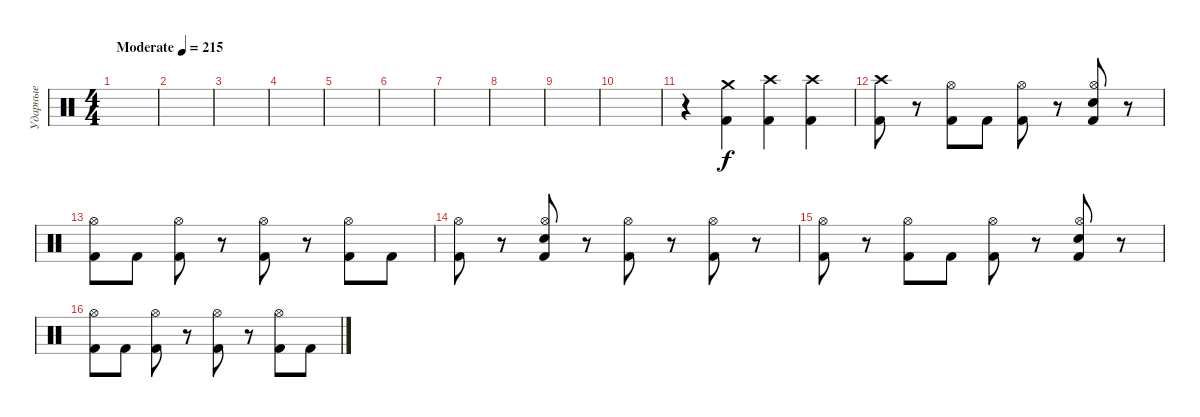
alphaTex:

\track ("Ударные" "Ударные") {instrument percussion}
\staff {score}
\articulation defaults
\ts (4 4)
\tempo (215 "Moderate")
\clef neutral
\ks c
|
|
|
|
|
|
|
|
|
|
r.4 ("Crash medium (hit)" "Kick (hit) 2").4 ("Crash high (hit)" "Kick (hit) 2").4 ("Crash high (hit)" "Kick (hit) 2").4 |
("Crash high (hit)" "Kick (hit) 2").8 r.8 ("Hi-Hat (open)" "Kick (hit) 2").8 "Kick (hit) 2".8 ("Hi-Hat (open)" "Kick (hit) 2").8 r.8 ("Hi-Hat (open)" "Snare (hit) 2" "Kick (hit) 2").8 r.8 |
("Hi-Hat (open)" "Kick (hit) 2").8 "Kick (hit) 2".8 ("Hi-Hat (open)" "Kick (hit) 2").8 r.8 ("Hi-Hat (open)" "Kick (hit) 2").8 r.8 ("Hi-Hat (open)" "Kick (hit) 2").8 "Kick (hit) 2".8 |
("Hi-Hat (open)" "Kick (hit) 2").8 r.8 ("Hi-Hat (open)" "Snare (hit) 2" "Kick (hit) 2").8 r.8 ("Hi-Hat (open)" "Kick (hit) 2").8 r.8 ("Hi-Hat (open)" "Kick (hit) 2").8 r.8 |
("Hi-Hat (open)" "Kick (hit) 2").8 r.8 ("Hi-Hat (open)" "Kick (hit) 2").8 "Kick (hit) 2".8 ("Hi-Hat (open)" "Kick (hit) 2").8 r.8 ("Hi-Hat (open)" "Snare (hit) 2" "Kick (hit) 2").8 r.8 |
("Hi-Hat (open)" "Kick (hit) 2").8 "Kick (hit) 2".8 ("Hi-Hat (open)" "Kick (hit) 2").8 r.8 ("Hi-Hat (open)" "Kick (hit) 2").8 r.8 ("Hi-Hat (open)" "Kick (hit) 2").8 "Kick (hit) 2".8
